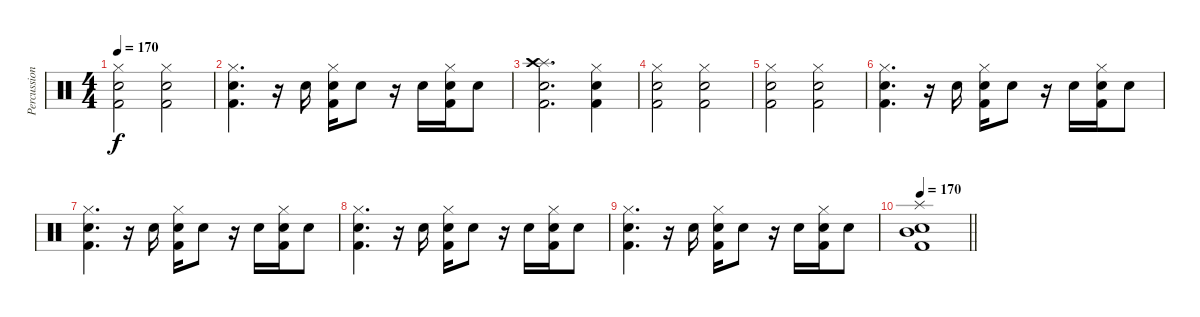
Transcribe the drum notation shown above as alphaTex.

\track ("Percussion" "Percussion") {instrument percussion}
\staff {score}
\articulation defaults
\ts (4 4)
\tempo 170
\clef neutral
\ks c
("Hi-Hat (closed)" "Snare (hit) 2" "Kick (hit) 2").2{dy f} ("Hi-Hat (closed)" "Snare (hit) 2" "Kick (hit) 2").2 |
("Hi-Hat (closed)" "Snare (hit) 2" "Kick (hit) 2").4{d} r.16 "Snare (hit) 2".16 ("Hi-Hat (closed)" "Snare (hit) 2" "Kick (hit) 2").16 "Snare (hit) 2".8 r.16 "Snare (hit) 2".16 ("Hi-Hat (closed)" "Snare (hit) 2" "Kick (hit) 2").16 "Snare (hit) 2".8 |
("Splash (hit)" "Crash high (hit)" "Snare (hit) 2" "Kick (hit) 2").2{d} ("Hi-Hat (closed)" "Snare (hit) 2" "Kick (hit) 2").4 |
("Hi-Hat (closed)" "Snare (hit) 2" "Kick (hit) 2").2 ("Hi-Hat (closed)" "Snare (hit) 2" "Kick (hit) 2").2 |
("Hi-Hat (closed)" "Snare (hit) 2" "Kick (hit) 2").2 ("Hi-Hat (closed)" "Snare (hit) 2" "Kick (hit) 2").2 |
("Hi-Hat (closed)" "Snare (hit) 2" "Kick (hit) 2").4{d} r.16 "Snare (hit) 2".16 ("Hi-Hat (closed)" "Snare (hit) 2" "Kick (hit) 2").16 "Snare (hit) 2".8 r.16 "Snare (hit) 2".16 ("Hi-Hat (closed)" "Snare (hit) 2" "Kick (hit) 2").16 "Snare (hit) 2".8 |
("Hi-Hat (closed)" "Snare (hit) 2" "Kick (hit) 2").4{d volume 0} r.16 "Snare (hit) 2".16 ("Hi-Hat (closed)" "Snare (hit) 2" "Kick (hit) 2").16 "Snare (hit) 2".8 r.16 "Snare (hit) 2".16 ("Hi-Hat (closed)" "Snare (hit) 2" "Kick (hit) 2").16 "Snare (hit) 2".8 |
("Hi-Hat (closed)" "Snare (hit) 2" "Kick (hit) 2").4{d} r.16 "Snare (hit) 2".16 ("Hi-Hat (closed)" "Snare (hit) 2" "Kick (hit) 2").16 "Snare (hit) 2".8 r.16 "Snare (hit) 2".16 ("Hi-Hat (closed)" "Snare (hit) 2" "Kick (hit) 2").16 "Snare (hit) 2".8 |
("Hi-Hat (closed)" "Snare (hit) 2" "Kick (hit) 2").4{d} r.16 "Snare (hit) 2".16 ("Hi-Hat (closed)" "Snare (hit) 2" "Kick (hit) 2").16 "Snare (hit) 2".8 r.16 "Snare (hit) 2".16 ("Hi-Hat (closed)" "Snare (hit) 2" "Kick (hit) 2").16 "Snare (hit) 2".8 |
\tempo (170 0.125)
\barLineRight lightlight
("Splash (hit)" "Mid Tom (hit)" "Snare (hit) 2" "Kick (hit) 2").1{volume 13}
